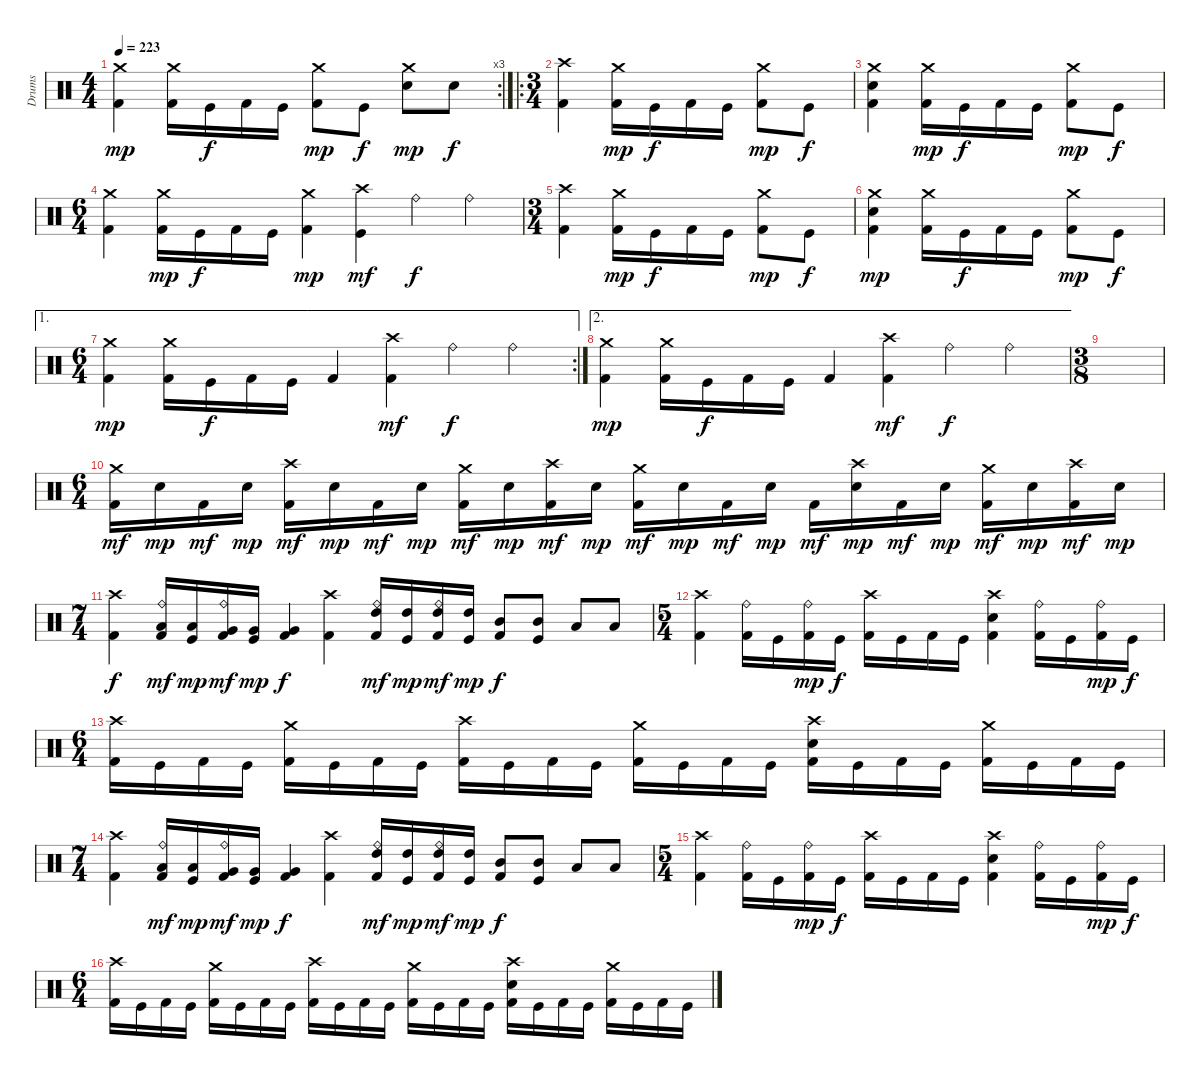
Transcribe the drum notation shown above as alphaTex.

\track ("Drums" "Drums") {instrument percussion}
\staff {score}
\articulation defaults
\rc 3
\ts (4 4)
\tempo 223
\clef neutral
\ks c
("Crash medium (hit)" "Kick (hit) 2").4{dy mp} ("Crash medium (hit)" "Kick (hit) 2").16 "Kick (hit)".16{dy f} "Kick (hit) 2".16 "Kick (hit)".16 ("Crash medium (hit)" "Kick (hit) 2").8{dy mp} "Kick (hit)".8{dy f} ("Crash medium (hit)" "Snare (hit) 2").8{dy mp} "Snare (hit) 2".8{dy f} |
\ro
\ts (3 4)
("Crash high (hit)" "Kick (hit) 2").4 ("Crash medium (hit)" "Kick (hit) 2").16{dy mp} "Kick (hit)".16{dy f} "Kick (hit) 2".16 "Kick (hit)".16 ("Crash medium (hit)" "Kick (hit) 2").8{dy mp} "Kick (hit)".8{dy f} |
("Crash medium (hit)" "Snare (hit) 2" "Kick (hit) 2").4 ("Crash medium (hit)" "Kick (hit) 2").16{dy mp} "Kick (hit)".16{dy f} "Kick (hit) 2".16 "Kick (hit)".16 ("Crash medium (hit)" "Kick (hit) 2").8{dy mp} "Kick (hit)".8{dy f} |
\ts (6 4)
("Crash medium (hit)" "Kick (hit) 2").4 ("Crash medium (hit)" "Kick (hit) 2").16{dy mp} "Kick (hit)".16{dy f} "Kick (hit) 2".16 "Kick (hit)".16 ("Crash medium (hit)" "Kick (hit) 2").4{dy mp} ("Crash high (hit)" "Kick (hit)").4{dy mf} "Ride (bell)".4{dy f} "Ride (bell)".4 |
\ts (3 4)
("Crash high (hit)" "Kick (hit) 2").4 ("Crash medium (hit)" "Kick (hit) 2").16{dy mp} "Kick (hit)".16{dy f} "Kick (hit) 2".16 "Kick (hit)".16 ("Crash medium (hit)" "Kick (hit) 2").8{dy mp} "Kick (hit)".8{dy f} |
("Crash medium (hit)" "Snare (hit) 2" "Kick (hit) 2").4{dy mp} ("Crash medium (hit)" "Kick (hit) 2").16 "Kick (hit)".16{dy f} "Kick (hit) 2".16 "Kick (hit)".16 ("Crash medium (hit)" "Kick (hit) 2").8{dy mp} "Kick (hit)".8{dy f} |
\ae 1
\rc 2
\ts (6 4)
("Crash medium (hit)" "Kick (hit) 2").4{dy mp} ("Crash medium (hit)" "Kick (hit) 2").16 "Kick (hit)".16{dy f} "Kick (hit) 2".16 "Kick (hit)".16 "Kick (hit) 2".4 ("Crash high (hit)" "Kick (hit) 2").4{dy mf} "Ride (bell)".4{dy f} "Ride (bell)".4 |
\ae 2
("Crash medium (hit)" "Kick (hit) 2").4{dy mp} ("Crash medium (hit)" "Kick (hit) 2").16 "Kick (hit)".16{dy f} "Kick (hit) 2".16 "Kick (hit)".16 "Kick (hit) 2".4 ("Crash high (hit)" "Kick (hit) 2").4{dy mf} "Ride (bell)".4{dy f} "Ride (bell)".4 |
\ts (3 8)
|
\ts (6 4)
("Crash medium (hit)" "Kick (hit) 2").16{dy mf} "Snare (hit) 2".16{dy mp} "Kick (hit) 2".16{dy mf} "Snare (hit) 2".16{dy mp} ("Crash high (hit)" "Kick (hit) 2").16{dy mf} "Snare (hit) 2".16{dy mp} "Kick (hit) 2".16{dy mf} "Snare (hit) 2".16{dy mp} ("Crash medium (hit)" "Kick (hit) 2").16{dy mf} "Snare (hit) 2".16{dy mp} ("Crash high (hit)" "Kick (hit) 2").16{dy mf} "Snare (hit) 2".16{dy mp} ("Crash medium (hit)" "Kick (hit) 2").16{dy mf} "Snare (hit) 2".16{dy mp} "Kick (hit) 2".16{dy mf} "Snare (hit) 2".16{dy mp} "Kick (hit) 2".16{dy mf} ("Crash high (hit)" "Snare (hit) 2").16{dy mp} "Kick (hit) 2".16{dy mf} "Snare (hit) 2".16{dy mp} ("Crash medium (hit)" "Kick (hit) 2").16{dy mf} "Snare (hit) 2".16{dy mp} ("Crash high (hit)" "Kick (hit) 2").16{dy mf} "Snare (hit) 2".16{dy mp} |
\ts (7 4)
("Crash high (hit)" "Kick (hit) 2").4{dy f} ("Ride (bell)" "Low Tom (hit)" "Kick (hit) 2").16{dy mf} ("Low Tom (hit)" "Kick (hit)").16{dy mp} ("Ride (bell)" "Very Low Tom (hit)" "Kick (hit) 2").16{dy mf} ("Very Low Tom (hit)" "Kick (hit)").16{dy mp} ("Very Low Tom (hit)" "Kick (hit) 2").4{dy f} ("Crash high (hit)" "Kick (hit) 2").4 ("Ride (bell)" "High Tom (hit)" "Kick (hit) 2").16{dy mf} ("High Tom (hit)" "Kick (hit)").16{dy mp} ("Ride (bell)" "High Tom (hit)" "Kick (hit) 2").16{dy mf} ("High Tom (hit)" "Kick (hit)").16{dy mp} ("Mid Tom (hit)" "Kick (hit) 2").8{dy f} ("Mid Tom (hit)" "Kick (hit)").8 "Low Tom (hit)".8 "Low Tom (hit)".8 |
\ts (5 4)
("Crash high (hit)" "Kick (hit) 2").4 ("Ride (bell)" "Kick (hit) 2").16 "Kick (hit)".16 ("Ride (bell)" "Kick (hit) 2").16{dy mp} "Kick (hit)".16{dy f} ("Crash high (hit)" "Kick (hit) 2").16 "Kick (hit)".16 "Kick (hit) 2".16 "Kick (hit)".16 ("Crash high (hit)" "Snare (hit) 2" "Kick (hit) 2").4 ("Ride (bell)" "Kick (hit) 2").16 "Kick (hit)".16 ("Ride (bell)" "Kick (hit) 2").16{dy mp} "Kick (hit)".16{dy f} |
\ts (6 4)
("Crash high (hit)" "Kick (hit) 2").16 "Kick (hit)".16 "Kick (hit) 2".16 "Kick (hit)".16 ("Crash medium (hit)" "Kick (hit) 2").16 "Kick (hit)".16 "Kick (hit) 2".16 "Kick (hit)".16 ("Crash high (hit)" "Kick (hit) 2").16 "Kick (hit)".16 "Kick (hit) 2".16 "Kick (hit)".16 ("Crash medium (hit)" "Kick (hit) 2").16 "Kick (hit)".16 "Kick (hit) 2".16 "Kick (hit)".16 ("Crash high (hit)" "Snare (hit) 2" "Kick (hit) 2").16 "Kick (hit)".16 "Kick (hit) 2".16 "Kick (hit)".16 ("Crash medium (hit)" "Kick (hit) 2").16 "Kick (hit)".16 "Kick (hit) 2".16 "Kick (hit)".16 |
\ts (7 4)
("Crash high (hit)" "Kick (hit) 2").4 ("Ride (bell)" "Low Tom (hit)" "Kick (hit) 2").16{dy mf} ("Low Tom (hit)" "Kick (hit)").16{dy mp} ("Ride (bell)" "Very Low Tom (hit)" "Kick (hit) 2").16{dy mf} ("Very Low Tom (hit)" "Kick (hit)").16{dy mp} ("Very Low Tom (hit)" "Kick (hit) 2").4{dy f} ("Crash high (hit)" "Kick (hit) 2").4 ("Ride (bell)" "High Tom (hit)" "Kick (hit) 2").16{dy mf} ("High Tom (hit)" "Kick (hit)").16{dy mp} ("Ride (bell)" "High Tom (hit)" "Kick (hit) 2").16{dy mf} ("High Tom (hit)" "Kick (hit)").16{dy mp} ("Mid Tom (hit)" "Kick (hit) 2").8{dy f} ("Mid Tom (hit)" "Kick (hit)").8 "Low Tom (hit)".8 "Low Tom (hit)".8 |
\ts (5 4)
("Crash high (hit)" "Kick (hit) 2").4 ("Ride (bell)" "Kick (hit) 2").16 "Kick (hit)".16 ("Ride (bell)" "Kick (hit) 2").16{dy mp} "Kick (hit)".16{dy f} ("Crash high (hit)" "Kick (hit) 2").16 "Kick (hit)".16 "Kick (hit) 2".16 "Kick (hit)".16 ("Crash high (hit)" "Snare (hit) 2" "Kick (hit) 2").4 ("Ride (bell)" "Kick (hit) 2").16 "Kick (hit)".16 ("Ride (bell)" "Kick (hit) 2").16{dy mp} "Kick (hit)".16{dy f} |
\ts (6 4)
("Crash high (hit)" "Kick (hit) 2").16 "Kick (hit)".16 "Kick (hit) 2".16 "Kick (hit)".16 ("Crash medium (hit)" "Kick (hit) 2").16 "Kick (hit)".16 "Kick (hit) 2".16 "Kick (hit)".16 ("Crash high (hit)" "Kick (hit) 2").16 "Kick (hit)".16 "Kick (hit) 2".16 "Kick (hit)".16 ("Crash medium (hit)" "Kick (hit) 2").16 "Kick (hit)".16 "Kick (hit) 2".16 "Kick (hit)".16 ("Crash high (hit)" "Snare (hit) 2" "Kick (hit) 2").16 "Kick (hit)".16 "Kick (hit) 2".16 "Kick (hit)".16 ("Crash medium (hit)" "Kick (hit) 2").16 "Kick (hit)".16 "Kick (hit) 2".16 "Kick (hit)".16
